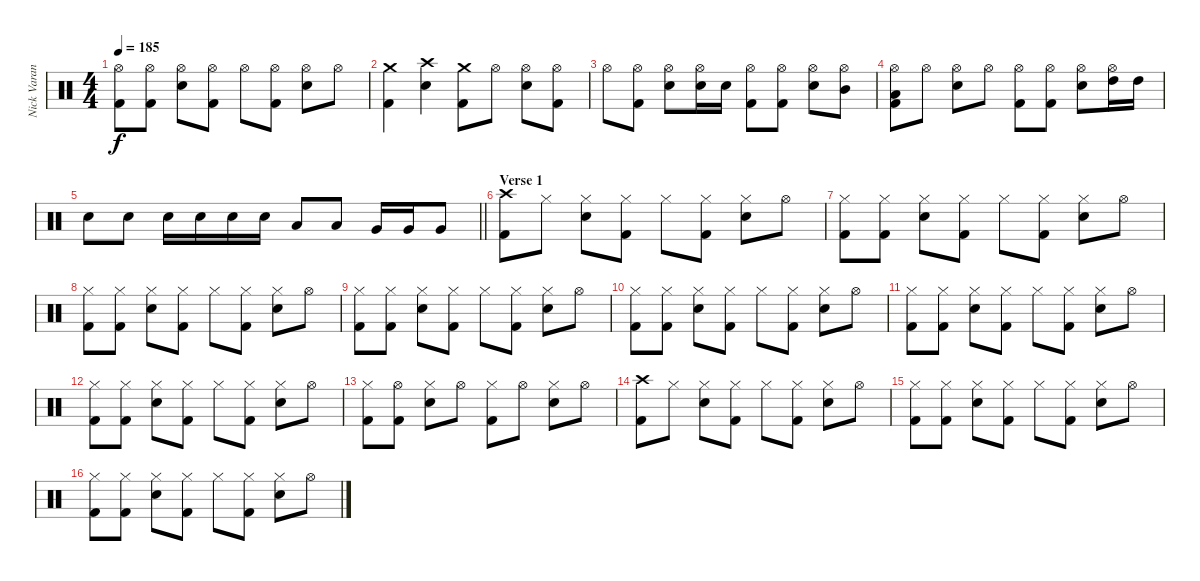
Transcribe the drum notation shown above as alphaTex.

\track ("Nick Varano (Drums)" "Nick Varan") {instrument percussion}
\staff {score}
\articulation defaults
\ts (4 4)
\tempo 185
\clef neutral
\ks c
("Hi-Hat (open)" "Kick (hit) 2").8{dy f} ("Hi-Hat (open)" "Kick (hit) 2").8 ("Hi-Hat (open)" "Electric Snare (hit)").8 ("Hi-Hat (open)" "Kick (hit) 2").8 "Hi-Hat (open)".8 ("Hi-Hat (open)" "Kick (hit) 2").8 ("Hi-Hat (open)" "Electric Snare (hit)").8 "Hi-Hat (open)".8 |
("Crash medium (hit)" "Kick (hit) 2").4 ("Crash high (hit)" "Electric Snare (hit)").4 ("Crash medium (hit)" "Kick (hit) 2").8 "Hi-Hat (open)".8 ("Hi-Hat (open)" "Electric Snare (hit)").8 ("Hi-Hat (open)" "Kick (hit) 2").8 |
"Hi-Hat (open)".8 ("Hi-Hat (open)" "Kick (hit) 2").8 ("Hi-Hat (open)" "Electric Snare (hit)").8 ("Hi-Hat (open)" "Electric Snare (hit)").16 "Electric Snare (hit)".16 ("Hi-Hat (open)" "Kick (hit) 2").8 ("Hi-Hat (open)" "Kick (hit) 2").8 ("Hi-Hat (open)" "Electric Snare (hit)").8 ("Hi-Hat (open)" "Mid Tom (hit)").8 |
("Hi-Hat (open)" "Low Tom (hit)" "Kick (hit) 2").8 "Hi-Hat (open)".8 ("Hi-Hat (open)" "Electric Snare (hit)").8 "Hi-Hat (open)".8 ("Hi-Hat (open)" "Kick (hit) 2").8 ("Hi-Hat (open)" "Kick (hit) 2").8 ("Hi-Hat (open)" "Electric Snare (hit)").8 ("Hi-Hat (open)" "High Tom (hit)").16 "High Tom (hit)".16 |
\barLineRight lightlight "Electric Snare (hit)".8 "Electric Snare (hit)".8 "Electric Snare (hit)".16 "Electric Snare (hit)".16 "Electric Snare (hit)".16 "Electric Snare (hit)".16 "Low Tom (hit)".8 "Low Tom (hit)".8 "Very Low Tom (hit)".16 "Very Low Tom (hit)".16 "Very Low Tom (hit)".8
|
\section ("" "Verse 1")
("Crash high (hit)" "Kick (hit) 2").8 "Hi-Hat (closed)".8 ("Hi-Hat (closed)" "Electric Snare (hit)").8 ("Hi-Hat (closed)" "Kick (hit) 2").8 "Hi-Hat (closed)".8 ("Hi-Hat (closed)" "Kick (hit) 2").8 ("Hi-Hat (closed)" "Electric Snare (hit)").8 "Hi-Hat (open)".8 |
("Hi-Hat (closed)" "Kick (hit) 2").8 ("Hi-Hat (closed)" "Kick (hit) 2").8 ("Hi-Hat (closed)" "Electric Snare (hit)").8 ("Hi-Hat (closed)" "Kick (hit) 2").8 "Hi-Hat (closed)".8 ("Hi-Hat (closed)" "Kick (hit) 2").8 ("Hi-Hat (closed)" "Electric Snare (hit)").8 "Hi-Hat (open)".8 |
("Hi-Hat (closed)" "Kick (hit) 2").8 ("Hi-Hat (closed)" "Kick (hit) 2").8 ("Hi-Hat (closed)" "Electric Snare (hit)").8 ("Hi-Hat (closed)" "Kick (hit) 2").8 "Hi-Hat (closed)".8 ("Hi-Hat (closed)" "Kick (hit) 2").8 ("Hi-Hat (closed)" "Electric Snare (hit)").8 "Hi-Hat (open)".8 |
("Hi-Hat (closed)" "Kick (hit) 2").8 ("Hi-Hat (closed)" "Kick (hit) 2").8 ("Hi-Hat (closed)" "Electric Snare (hit)").8 ("Hi-Hat (closed)" "Kick (hit) 2").8 "Hi-Hat (closed)".8 ("Hi-Hat (closed)" "Kick (hit) 2").8 ("Hi-Hat (closed)" "Electric Snare (hit)").8 "Hi-Hat (open)".8 |
("Hi-Hat (closed)" "Kick (hit) 2").8 ("Hi-Hat (closed)" "Kick (hit) 2").8 ("Hi-Hat (closed)" "Electric Snare (hit)").8 ("Hi-Hat (closed)" "Kick (hit) 2").8 "Hi-Hat (closed)".8 ("Hi-Hat (closed)" "Kick (hit) 2").8 ("Hi-Hat (closed)" "Electric Snare (hit)").8 "Hi-Hat (open)".8 |
("Hi-Hat (closed)" "Kick (hit) 2").8 ("Hi-Hat (closed)" "Kick (hit) 2").8 ("Hi-Hat (closed)" "Electric Snare (hit)").8 ("Hi-Hat (closed)" "Kick (hit) 2").8 "Hi-Hat (closed)".8 ("Hi-Hat (closed)" "Kick (hit) 2").8 ("Hi-Hat (closed)" "Electric Snare (hit)").8 "Hi-Hat (open)".8 |
("Hi-Hat (closed)" "Kick (hit) 2").8 ("Hi-Hat (closed)" "Kick (hit) 2").8 ("Hi-Hat (closed)" "Electric Snare (hit)").8 ("Hi-Hat (closed)" "Kick (hit) 2").8 "Hi-Hat (closed)".8 ("Hi-Hat (closed)" "Kick (hit) 2").8 ("Hi-Hat (closed)" "Electric Snare (hit)").8 "Hi-Hat (open)".8 |
("Hi-Hat (closed)" "Kick (hit) 2").8 ("Hi-Hat (open)" "Kick (hit) 2").8 ("Hi-Hat (closed)" "Electric Snare (hit)").8 "Hi-Hat (open)".8 ("Hi-Hat (closed)" "Kick (hit) 2").8 "Hi-Hat (open)".8 ("Hi-Hat (closed)" "Electric Snare (hit)").8 "Hi-Hat (open)".8 |
("Crash high (hit)" "Kick (hit) 2").8 "Hi-Hat (closed)".8 ("Hi-Hat (closed)" "Electric Snare (hit)").8 ("Hi-Hat (closed)" "Kick (hit) 2").8 "Hi-Hat (closed)".8 ("Hi-Hat (closed)" "Kick (hit) 2").8 ("Hi-Hat (closed)" "Electric Snare (hit)").8 "Hi-Hat (open)".8 |
("Hi-Hat (closed)" "Kick (hit) 2").8 ("Hi-Hat (closed)" "Kick (hit) 2").8 ("Hi-Hat (closed)" "Electric Snare (hit)").8 ("Hi-Hat (closed)" "Kick (hit) 2").8 "Hi-Hat (closed)".8 ("Hi-Hat (closed)" "Kick (hit) 2").8 ("Hi-Hat (closed)" "Electric Snare (hit)").8 "Hi-Hat (open)".8 |
("Hi-Hat (closed)" "Kick (hit) 2").8 ("Hi-Hat (closed)" "Kick (hit) 2").8 ("Hi-Hat (closed)" "Electric Snare (hit)").8 ("Hi-Hat (closed)" "Kick (hit) 2").8 "Hi-Hat (closed)".8 ("Hi-Hat (closed)" "Kick (hit) 2").8 ("Hi-Hat (closed)" "Electric Snare (hit)").8 "Hi-Hat (open)".8
